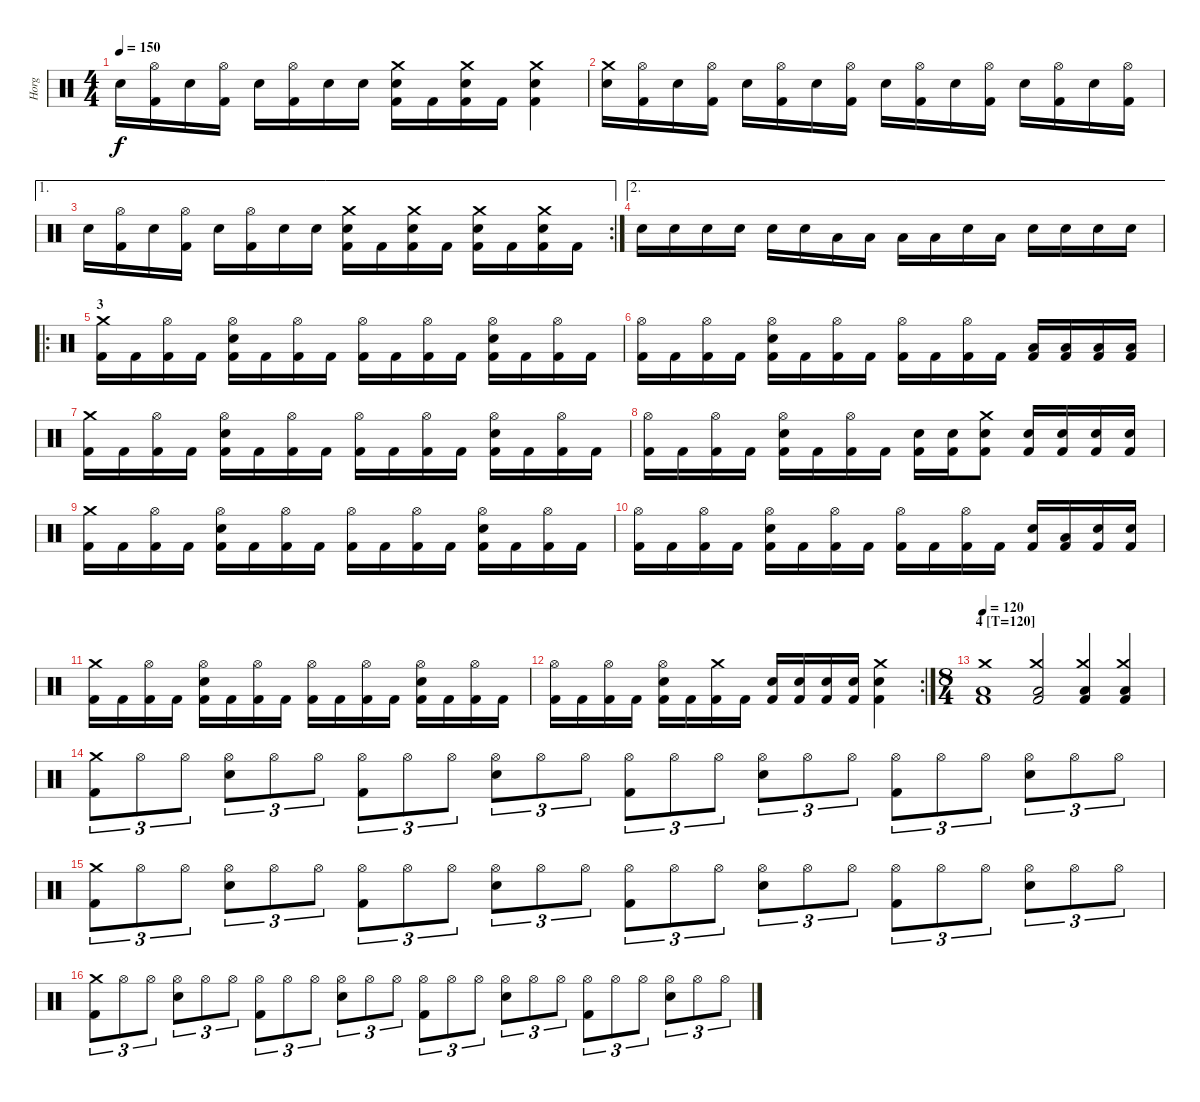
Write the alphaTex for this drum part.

\track ("Horg" "Horg") {instrument percussion}
\staff {score}
\articulation defaults
\ts (4 4)
\tempo 150
\clef neutral
\ks c "Snare (hit) 2".16{dy f}
("Hi-Hat (open)" "Kick (hit) 2").16 "Snare (hit) 2".16 ("Hi-Hat (open)" "Kick (hit) 2").16 "Snare (hit) 2".16 ("Hi-Hat (open)" "Kick (hit) 2").16 "Snare (hit) 2".16 "Snare (hit) 2".16 ("Crash medium (hit)" "Snare (hit) 2" "Kick (hit) 2").16 "Kick (hit) 2".16 ("Crash medium (hit)" "Snare (hit) 2" "Kick (hit) 2").16 "Kick (hit) 2".16 ("Crash medium (hit)" "Snare (hit) 2" "Kick (hit) 2").4 |
("Crash medium (hit)" "Snare (hit) 2").16 ("Hi-Hat (open)" "Kick (hit) 2").16 "Snare (hit) 2".16 ("Hi-Hat (open)" "Kick (hit) 2").16 "Snare (hit) 2".16 ("Hi-Hat (open)" "Kick (hit) 2").16 "Snare (hit) 2".16 ("Hi-Hat (open)" "Kick (hit) 2").16 "Snare (hit) 2".16 ("Hi-Hat (open)" "Kick (hit) 2").16 "Snare (hit) 2".16 ("Hi-Hat (open)" "Kick (hit) 2").16 "Snare (hit) 2".16 ("Hi-Hat (open)" "Kick (hit) 2").16 "Snare (hit) 2".16 ("Hi-Hat (open)" "Kick (hit) 2").16 |
\ae 1
\rc 2 "Snare (hit) 2".16
("Hi-Hat (open)" "Kick (hit) 2").16 "Snare (hit) 2".16 ("Hi-Hat (open)" "Kick (hit) 2").16 "Snare (hit) 2".16 ("Hi-Hat (open)" "Kick (hit) 2").16 "Snare (hit) 2".16 "Snare (hit) 2".16 ("Crash medium (hit)" "Snare (hit) 2" "Kick (hit) 2").16 "Kick (hit) 2".16 ("Crash medium (hit)" "Snare (hit) 2" "Kick (hit) 2").16 "Kick (hit) 2".16 ("Crash medium (hit)" "Snare (hit) 2" "Kick (hit) 2").16 "Kick (hit) 2".16 ("Crash medium (hit)" "Snare (hit) 2" "Kick (hit) 2").16 "Kick (hit) 2".16 |
\ae 2 "Snare (hit) 2".16 "Snare (hit) 2".16 "Snare (hit) 2".16 "Snare (hit) 2".16 "Snare (hit) 2".16 "Snare (hit) 2".16 "Low Tom (hit)".16 "Low Tom (hit)".16 "Low Tom (hit)".16 "Low Tom (hit)".16 "Snare (hit) 2".16 "Low Tom (hit)".16 "Snare (hit) 2".16 "Snare (hit) 2".16 "Snare (hit) 2".16 "Snare (hit) 2".16
|
\ro
\section ("" "3")
("Crash medium (hit)" "Kick (hit) 2").16 "Kick (hit) 2".16 ("Hi-Hat (open)" "Kick (hit) 2").16 "Kick (hit) 2".16 ("Hi-Hat (open)" "Snare (hit) 2" "Kick (hit) 2").16 "Kick (hit) 2".16 ("Hi-Hat (open)" "Kick (hit) 2").16 "Kick (hit) 2".16 ("Hi-Hat (open)" "Kick (hit) 2").16 "Kick (hit) 2".16 ("Hi-Hat (open)" "Kick (hit) 2").16 "Kick (hit) 2".16 ("Hi-Hat (open)" "Snare (hit) 2" "Kick (hit) 2").16 "Kick (hit) 2".16 ("Hi-Hat (open)" "Kick (hit) 2").16 "Kick (hit) 2".16 |
("Hi-Hat (open)" "Kick (hit) 2").16 "Kick (hit) 2".16 ("Hi-Hat (open)" "Kick (hit) 2").16 "Kick (hit) 2".16 ("Hi-Hat (open)" "Snare (hit) 2" "Kick (hit) 2").16 "Kick (hit) 2".16 ("Hi-Hat (open)" "Kick (hit) 2").16 "Kick (hit) 2".16 ("Hi-Hat (open)" "Kick (hit) 2").16 "Kick (hit) 2".16 ("Hi-Hat (open)" "Kick (hit) 2").16 "Kick (hit) 2".16 ("Low Floor Tom (hit)" "Kick (hit) 2").16 ("Low Floor Tom (hit)" "Kick (hit) 2").16 ("Low Floor Tom (hit)" "Kick (hit) 2").16 ("Low Floor Tom (hit)" "Kick (hit) 2").16 |
("Crash medium (hit)" "Kick (hit) 2").16 "Kick (hit) 2".16 ("Hi-Hat (open)" "Kick (hit) 2").16 "Kick (hit) 2".16 ("Hi-Hat (open)" "Snare (hit) 2" "Kick (hit) 2").16 "Kick (hit) 2".16 ("Hi-Hat (open)" "Kick (hit) 2").16 "Kick (hit) 2".16 ("Hi-Hat (open)" "Kick (hit) 2").16 "Kick (hit) 2".16 ("Hi-Hat (open)" "Kick (hit) 2").16 "Kick (hit) 2".16 ("Hi-Hat (open)" "Snare (hit) 2" "Kick (hit) 2").16 "Kick (hit) 2".16 ("Hi-Hat (open)" "Kick (hit) 2").16 "Kick (hit) 2".16 |
("Hi-Hat (open)" "Kick (hit) 2").16 "Kick (hit) 2".16 ("Hi-Hat (open)" "Kick (hit) 2").16 "Kick (hit) 2".16 ("Hi-Hat (open)" "Snare (hit) 2" "Kick (hit) 2").16 "Kick (hit) 2".16 ("Hi-Hat (open)" "Kick (hit) 2").16 "Kick (hit) 2".16 ("Snare (hit) 2" "Kick (hit) 2").16 ("Snare (hit) 2" "Kick (hit) 2").16 ("Crash medium (hit)" "Snare (hit) 2" "Kick (hit) 2").8 ("Snare (hit) 2" "Kick (hit) 2").16 ("Snare (hit) 2" "Kick (hit) 2").16 ("Snare (hit) 2" "Kick (hit) 2").16 ("Snare (hit) 2" "Kick (hit) 2").16 |
("Crash medium (hit)" "Kick (hit) 2").16 "Kick (hit) 2".16 ("Hi-Hat (open)" "Kick (hit) 2").16 "Kick (hit) 2".16 ("Hi-Hat (open)" "Snare (hit) 2" "Kick (hit) 2").16 "Kick (hit) 2".16 ("Hi-Hat (open)" "Kick (hit) 2").16 "Kick (hit) 2".16 ("Hi-Hat (open)" "Kick (hit) 2").16 "Kick (hit) 2".16 ("Hi-Hat (open)" "Kick (hit) 2").16 "Kick (hit) 2".16 ("Hi-Hat (open)" "Snare (hit) 2" "Kick (hit) 2").16 "Kick (hit) 2".16 ("Hi-Hat (open)" "Kick (hit) 2").16 "Kick (hit) 2".16 |
("Hi-Hat (open)" "Kick (hit) 2").16 "Kick (hit) 2".16 ("Hi-Hat (open)" "Kick (hit) 2").16 "Kick (hit) 2".16 ("Hi-Hat (open)" "Snare (hit) 2" "Kick (hit) 2").16 "Kick (hit) 2".16 ("Hi-Hat (open)" "Kick (hit) 2").16 "Kick (hit) 2".16 ("Hi-Hat (open)" "Kick (hit) 2").16 "Kick (hit) 2".16 ("Hi-Hat (open)" "Kick (hit) 2").16 "Kick (hit) 2".16 ("Snare (hit) 2" "Kick (hit) 2").16 ("Low Floor Tom (hit)" "Kick (hit) 2").16 ("Snare (hit) 2" "Kick (hit) 2").16 ("Snare (hit) 2" "Kick (hit) 2").16 |
("Crash medium (hit)" "Kick (hit) 2").16 "Kick (hit) 2".16 ("Hi-Hat (open)" "Kick (hit) 2").16 "Kick (hit) 2".16 ("Hi-Hat (open)" "Snare (hit) 2" "Kick (hit) 2").16 "Kick (hit) 2".16 ("Hi-Hat (open)" "Kick (hit) 2").16 "Kick (hit) 2".16 ("Hi-Hat (open)" "Kick (hit) 2").16 "Kick (hit) 2".16 ("Hi-Hat (open)" "Kick (hit) 2").16 "Kick (hit) 2".16 ("Hi-Hat (open)" "Snare (hit) 2" "Kick (hit) 2").16 "Kick (hit) 2".16 ("Hi-Hat (open)" "Kick (hit) 2").16 "Kick (hit) 2".16 |
\rc 2
("Hi-Hat (open)" "Kick (hit) 2").16 "Kick (hit) 2".16 ("Hi-Hat (open)" "Kick (hit) 2").16 "Kick (hit) 2".16 ("Hi-Hat (open)" "Snare (hit) 2" "Kick (hit) 2").16 "Kick (hit) 2".16 ("Crash medium (hit)" "Kick (hit) 2").16 "Kick (hit) 2".16 ("Snare (hit) 2" "Kick (hit) 2").16 ("Snare (hit) 2" "Kick (hit) 2").16 ("Snare (hit) 2" "Kick (hit) 2").16 ("Snare (hit) 2" "Kick (hit) 2").16 ("Crash medium (hit)" "Snare (hit) 2" "Kick (hit) 2").4 |
\ts (8 4)
\section ("" "4 [T=120]")
\tempo 120
("Crash medium (hit)" "Low Floor Tom (hit)" "Kick (hit) 2").1 ("Crash medium (hit)" "Low Floor Tom (hit)" "Kick (hit) 2").2 ("Crash medium (hit)" "Low Floor Tom (hit)" "Kick (hit) 2").4 ("Crash medium (hit)" "Low Floor Tom (hit)" "Kick (hit) 2").4 |
("Crash medium (hit)" "Kick (hit) 2").8{tu (3 2)} "Hi-Hat (open)".8{tu (3 2)} "Hi-Hat (open)".8{tu (3 2)} ("Hi-Hat (open)" "Snare (hit) 2").8{tu (3 2)} "Hi-Hat (open)".8{tu (3 2)} "Hi-Hat (open)".8{tu (3 2)} ("Hi-Hat (open)" "Kick (hit) 2").8{tu (3 2)} "Hi-Hat (open)".8{tu (3 2)} "Hi-Hat (open)".8{tu (3 2)} ("Hi-Hat (open)" "Snare (hit) 2").8{tu (3 2)} "Hi-Hat (open)".8{tu (3 2)} "Hi-Hat (open)".8{tu (3 2)} ("Hi-Hat (open)" "Kick (hit) 2").8{tu (3 2)} "Hi-Hat (open)".8{tu (3 2)} "Hi-Hat (open)".8{tu (3 2)} ("Hi-Hat (open)" "Snare (hit) 2").8{tu (3 2)} "Hi-Hat (open)".8{tu (3 2)} "Hi-Hat (open)".8{tu (3 2)} ("Hi-Hat (open)" "Kick (hit) 2").8{tu (3 2)} "Hi-Hat (open)".8{tu (3 2)} "Hi-Hat (open)".8{tu (3 2)} ("Hi-Hat (open)" "Snare (hit) 2").8{tu (3 2)} "Hi-Hat (open)".8{tu (3 2)} "Hi-Hat (open)".8{tu (3 2)} |
("Crash medium (hit)" "Kick (hit) 2").8{tu (3 2)} "Hi-Hat (open)".8{tu (3 2)} "Hi-Hat (open)".8{tu (3 2)} ("Hi-Hat (open)" "Snare (hit) 2").8{tu (3 2)} "Hi-Hat (open)".8{tu (3 2)} "Hi-Hat (open)".8{tu (3 2)} ("Hi-Hat (open)" "Kick (hit) 2").8{tu (3 2)} "Hi-Hat (open)".8{tu (3 2)} "Hi-Hat (open)".8{tu (3 2)} ("Hi-Hat (open)" "Snare (hit) 2").8{tu (3 2)} "Hi-Hat (open)".8{tu (3 2)} "Hi-Hat (open)".8{tu (3 2)} ("Hi-Hat (open)" "Kick (hit) 2").8{tu (3 2)} "Hi-Hat (open)".8{tu (3 2)} "Hi-Hat (open)".8{tu (3 2)} ("Hi-Hat (open)" "Snare (hit) 2").8{tu (3 2)} "Hi-Hat (open)".8{tu (3 2)} "Hi-Hat (open)".8{tu (3 2)} ("Hi-Hat (open)" "Kick (hit) 2").8{tu (3 2)} "Hi-Hat (open)".8{tu (3 2)} "Hi-Hat (open)".8{tu (3 2)} ("Hi-Hat (open)" "Snare (hit) 2").8{tu (3 2)} "Hi-Hat (open)".8{tu (3 2)} "Hi-Hat (open)".8{tu (3 2)} |
("Crash medium (hit)" "Kick (hit) 2").8{tu (3 2)} "Hi-Hat (open)".8{tu (3 2)} "Hi-Hat (open)".8{tu (3 2)} ("Hi-Hat (open)" "Snare (hit) 2").8{tu (3 2)} "Hi-Hat (open)".8{tu (3 2)} "Hi-Hat (open)".8{tu (3 2)} ("Hi-Hat (open)" "Kick (hit) 2").8{tu (3 2)} "Hi-Hat (open)".8{tu (3 2)} "Hi-Hat (open)".8{tu (3 2)} ("Hi-Hat (open)" "Snare (hit) 2").8{tu (3 2)} "Hi-Hat (open)".8{tu (3 2)} "Hi-Hat (open)".8{tu (3 2)} ("Hi-Hat (open)" "Kick (hit) 2").8{tu (3 2)} "Hi-Hat (open)".8{tu (3 2)} "Hi-Hat (open)".8{tu (3 2)} ("Hi-Hat (open)" "Snare (hit) 2").8{tu (3 2)} "Hi-Hat (open)".8{tu (3 2)} "Hi-Hat (open)".8{tu (3 2)} ("Hi-Hat (open)" "Kick (hit) 2").8{tu (3 2)} "Hi-Hat (open)".8{tu (3 2)} "Hi-Hat (open)".8{tu (3 2)} ("Hi-Hat (open)" "Snare (hit) 2").8{tu (3 2)} "Hi-Hat (open)".8{tu (3 2)} "Hi-Hat (open)".8{tu (3 2)}
